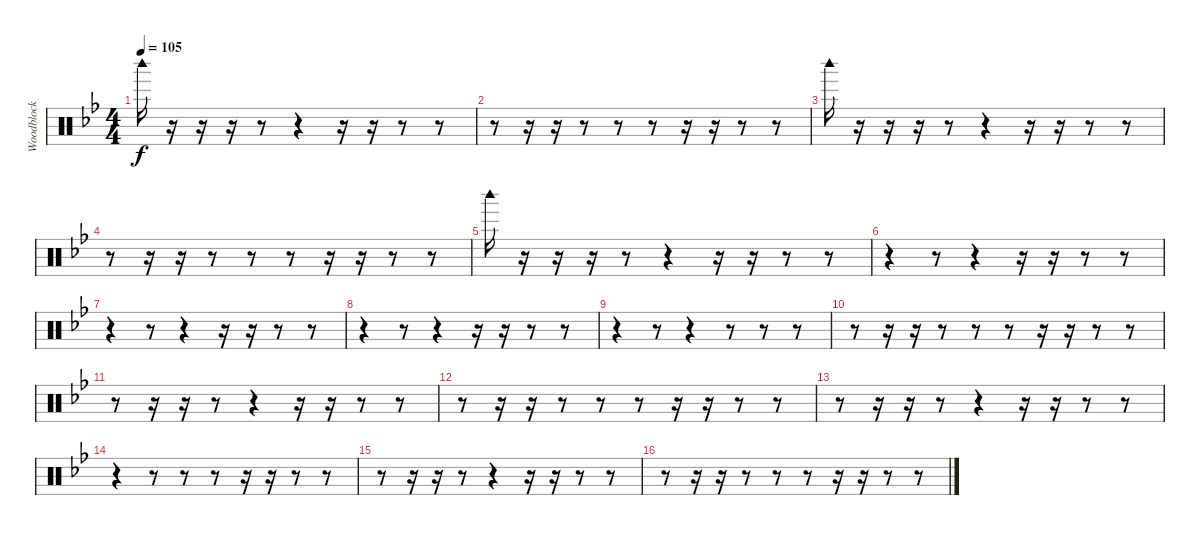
\track ("Woodblock" "Woodblock") {instrument percussion}
\staff {score}
\articulation defaults
\ts (4 4)
\tempo 105
\clef neutral
\ks gminor "Woodblock high (hit)".16{dy f}
r.16 r.16 r.16 r.8 r.4 r.16 r.16 r.8 r.8 |
r.8 r.16 r.16 r.8 r.8 r.8 r.16 r.16 r.8 r.8 |
"Woodblock high (hit)".16 r.16 r.16 r.16 r.8 r.4 r.16 r.16 r.8 r.8 |
r.8 r.16 r.16 r.8 r.8 r.8 r.16 r.16 r.8 r.8 |
"Woodblock high (hit)".16 r.16 r.16 r.16 r.8 r.4 r.16 r.16 r.8 r.8 |
r.4 r.8 r.4 r.16 r.16 r.8 r.8 |
r.4 r.8 r.4 r.16 r.16 r.8 r.8 |
r.4 r.8 r.4 r.16 r.16 r.8 r.8 |
r.4 r.8 r.4 r.8 r.8 r.8 |
r.8 r.16 r.16 r.8 r.8 r.8 r.16 r.16 r.8 r.8 |
r.8 r.16 r.16 r.8 r.4 r.16 r.16 r.8 r.8 |
r.8 r.16 r.16 r.8 r.8 r.8 r.16 r.16 r.8 r.8 |
r.8 r.16 r.16 r.8 r.4 r.16 r.16 r.8 r.8 |
r.4 r.8 r.8 r.8 r.16 r.16 r.8 r.8 |
r.8 r.16 r.16 r.8 r.4 r.16 r.16 r.8 r.8 |
r.8 r.16 r.16 r.8 r.8 r.8 r.16 r.16 r.8 r.8
